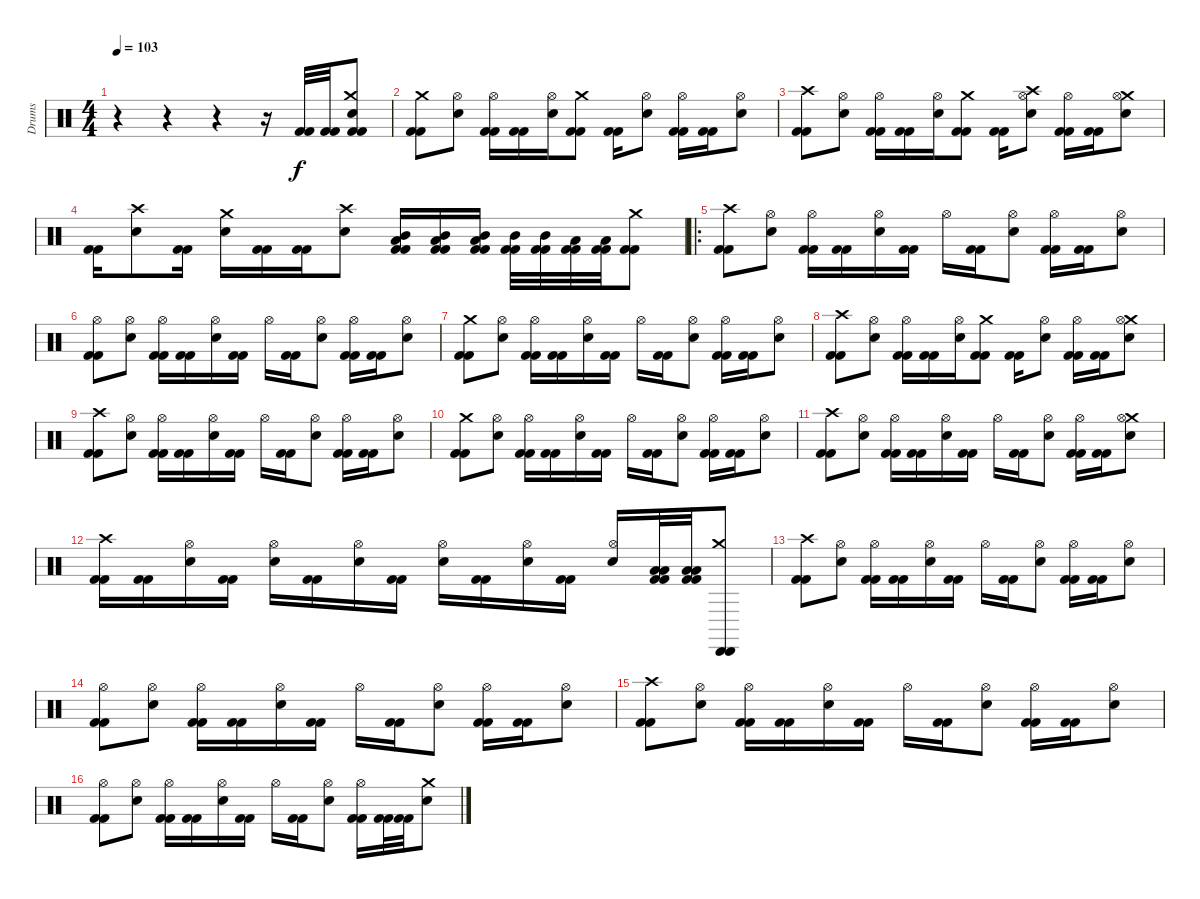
\track ("Drums" "Drums") {instrument percussion}
\staff {score}
\articulation defaults
\ts (4 4)
\tempo 103
\clef neutral
\ks c
r.4{dy f} r.4 r.4 r.16 ("Kick (hit) 2" "Kick (hit) 2").32 ("Kick (hit) 2" "Kick (hit) 2").32 ("Crash medium (hit)" "Electric Snare (hit)" "Kick (hit) 2" "Kick (hit) 2").8 |
("Crash medium (hit)" "Kick (hit) 2" "Kick (hit) 2").8 ("Hi-Hat (open)" "Electric Snare (hit)").8 ("Hi-Hat (open)" "Kick (hit) 2" "Kick (hit) 2").16 ("Kick (hit) 2" "Kick (hit) 2").16 ("Hi-Hat (open)" "Electric Snare (hit)").16 ("Crash medium (hit)" "Kick (hit) 2" "Kick (hit) 2").8 ("Kick (hit) 2" "Kick (hit) 2").16 ("Hi-Hat (open)" "Electric Snare (hit)").8 ("Hi-Hat (open)" "Kick (hit) 2" "Kick (hit) 2").16 ("Kick (hit) 2" "Kick (hit) 2").16 ("Hi-Hat (open)" "Electric Snare (hit)").8 |
("Crash high (hit)" "Kick (hit) 2" "Kick (hit) 2").8 ("Hi-Hat (open)" "Electric Snare (hit)").8 ("Hi-Hat (open)" "Kick (hit) 2" "Kick (hit) 2").16 ("Kick (hit) 2" "Kick (hit) 2").16 ("Hi-Hat (open)" "Electric Snare (hit)").16 ("Crash medium (hit)" "Kick (hit) 2" "Kick (hit) 2").8 ("Kick (hit) 2" "Kick (hit) 2").16 ("Crash high (hit)" "Hi-Hat (open)" "Electric Snare (hit)").8 ("Hi-Hat (open)" "Kick (hit) 2" "Kick (hit) 2").16 ("Kick (hit) 2" "Kick (hit) 2").16 ("Crash medium (hit)" "Hi-Hat (open)" "Electric Snare (hit)").8 |
("Kick (hit) 2" "Kick (hit) 2").16 ("Crash high (hit)" "Electric Snare (hit)").8 ("Kick (hit) 2" "Kick (hit) 2").16 ("Crash medium (hit)" "Electric Snare (hit)").16 ("Kick (hit) 2" "Kick (hit) 2").16 ("Kick (hit) 2" "Kick (hit) 2").16 ("Crash high (hit)" "Electric Snare (hit)").8 ("Mid Tom (hit)" "Low Tom (hit)" "Kick (hit) 2" "Kick (hit) 2").16 ("Mid Tom (hit)" "Low Tom (hit)" "Kick (hit) 2" "Kick (hit) 2").16 ("Mid Tom (hit)" "Low Tom (hit)" "Kick (hit) 2" "Kick (hit) 2").16 ("Mid Tom (hit)" "Kick (hit) 2" "Kick (hit) 2").32 ("Mid Tom (hit)" "Kick (hit) 2" "Kick (hit) 2").32 ("Low Tom (hit)" "Kick (hit) 2" "Kick (hit) 2").32 ("Low Tom (hit)" "Kick (hit) 2" "Kick (hit) 2").32 ("Crash medium (hit)" "Kick (hit) 2" "Kick (hit) 2").8 |
\ro
("Crash high (hit)" "Kick (hit) 2" "Kick (hit) 2").8 ("Hi-Hat (open)" "Electric Snare (hit)").8 ("Hi-Hat (open)" "Kick (hit) 2" "Kick (hit) 2").16 ("Kick (hit) 2" "Kick (hit) 2").16 ("Hi-Hat (open)" "Electric Snare (hit)").16 ("Kick (hit) 2" "Kick (hit) 2").16 "Hi-Hat (open)".16 ("Kick (hit) 2" "Kick (hit) 2").16 ("Hi-Hat (open)" "Electric Snare (hit)").8 ("Hi-Hat (open)" "Kick (hit) 2" "Kick (hit) 2").16 ("Kick (hit) 2" "Kick (hit) 2").16 ("Hi-Hat (open)" "Electric Snare (hit)").8 |
("Hi-Hat (open)" "Kick (hit) 2" "Kick (hit) 2").8 ("Hi-Hat (open)" "Electric Snare (hit)").8 ("Hi-Hat (open)" "Kick (hit) 2" "Kick (hit) 2").16 ("Kick (hit) 2" "Kick (hit) 2").16 ("Hi-Hat (open)" "Electric Snare (hit)").16 ("Kick (hit) 2" "Kick (hit) 2").16 "Hi-Hat (open)".16 ("Kick (hit) 2" "Kick (hit) 2").16 ("Hi-Hat (open)" "Electric Snare (hit)").8 ("Hi-Hat (open)" "Kick (hit) 2" "Kick (hit) 2").16 ("Kick (hit) 2" "Kick (hit) 2").16 ("Hi-Hat (open)" "Electric Snare (hit)").8 |
("Crash medium (hit)" "Kick (hit) 2" "Kick (hit) 2").8 ("Hi-Hat (open)" "Electric Snare (hit)").8 ("Hi-Hat (open)" "Kick (hit) 2" "Kick (hit) 2").16 ("Kick (hit) 2" "Kick (hit) 2").16 ("Hi-Hat (open)" "Electric Snare (hit)").16 ("Kick (hit) 2" "Kick (hit) 2").16 "Hi-Hat (open)".16 ("Kick (hit) 2" "Kick (hit) 2").16 ("Hi-Hat (open)" "Electric Snare (hit)").8 ("Hi-Hat (open)" "Kick (hit) 2" "Kick (hit) 2").16 ("Kick (hit) 2" "Kick (hit) 2").16 ("Hi-Hat (open)" "Electric Snare (hit)").8 |
("Crash high (hit)" "Kick (hit) 2" "Kick (hit) 2").8 ("Hi-Hat (open)" "Electric Snare (hit)").8 ("Hi-Hat (open)" "Kick (hit) 2" "Kick (hit) 2").16 ("Kick (hit) 2" "Kick (hit) 2").16 ("Hi-Hat (open)" "Electric Snare (hit)").16 ("Crash medium (hit)" "Kick (hit) 2" "Kick (hit) 2").8 ("Kick (hit) 2" "Kick (hit) 2").16 ("Hi-Hat (open)" "Electric Snare (hit)").8 ("Hi-Hat (open)" "Kick (hit) 2" "Kick (hit) 2").16 ("Kick (hit) 2" "Kick (hit) 2").16 ("Crash medium (hit)" "Hi-Hat (open)" "Electric Snare (hit)").8 |
("Crash high (hit)" "Kick (hit) 2" "Kick (hit) 2").8 ("Hi-Hat (open)" "Electric Snare (hit)").8 ("Hi-Hat (open)" "Kick (hit) 2" "Kick (hit) 2").16 ("Kick (hit) 2" "Kick (hit) 2").16 ("Hi-Hat (open)" "Electric Snare (hit)").16 ("Kick (hit) 2" "Kick (hit) 2").16 "Hi-Hat (open)".16 ("Kick (hit) 2" "Kick (hit) 2").16 ("Hi-Hat (open)" "Electric Snare (hit)").8 ("Hi-Hat (open)" "Kick (hit) 2" "Kick (hit) 2").16 ("Kick (hit) 2" "Kick (hit) 2").16 ("Hi-Hat (open)" "Electric Snare (hit)").8 |
("Crash medium (hit)" "Kick (hit) 2" "Kick (hit) 2").8 ("Hi-Hat (open)" "Electric Snare (hit)").8 ("Hi-Hat (open)" "Kick (hit) 2" "Kick (hit) 2").16 ("Kick (hit) 2" "Kick (hit) 2").16 ("Hi-Hat (open)" "Electric Snare (hit)").16 ("Kick (hit) 2" "Kick (hit) 2").16 "Hi-Hat (open)".16 ("Kick (hit) 2" "Kick (hit) 2").16 ("Hi-Hat (open)" "Electric Snare (hit)").8 ("Hi-Hat (open)" "Kick (hit) 2" "Kick (hit) 2").16 ("Kick (hit) 2" "Kick (hit) 2").16 ("Hi-Hat (open)" "Electric Snare (hit)").8 |
("Crash high (hit)" "Kick (hit) 2" "Kick (hit) 2").8 ("Hi-Hat (open)" "Electric Snare (hit)").8 ("Hi-Hat (open)" "Kick (hit) 2" "Kick (hit) 2").16 ("Kick (hit) 2" "Kick (hit) 2").16 ("Hi-Hat (open)" "Electric Snare (hit)").16 ("Kick (hit) 2" "Kick (hit) 2").16 "Hi-Hat (open)".16 ("Kick (hit) 2" "Kick (hit) 2").16 ("Hi-Hat (open)" "Electric Snare (hit)").8 ("Hi-Hat (open)" "Kick (hit) 2" "Kick (hit) 2").16 ("Kick (hit) 2" "Kick (hit) 2").16 ("Crash medium (hit)" "Hi-Hat (open)" "Electric Snare (hit)").8 |
("Crash high (hit)" "Kick (hit) 2" "Kick (hit) 2").16 ("Kick (hit) 2" "Kick (hit) 2").16 ("Hi-Hat (open)" "Electric Snare (hit)").16 ("Kick (hit) 2" "Kick (hit) 2").16 ("Hi-Hat (open)" "Electric Snare (hit)").16 ("Kick (hit) 2" "Kick (hit) 2").16 ("Hi-Hat (open)" "Electric Snare (hit)").16 ("Kick (hit) 2" "Kick (hit) 2").16 ("Hi-Hat (open)" "Electric Snare (hit)").16 ("Kick (hit) 2" "Kick (hit) 2").16 ("Hi-Hat (open)" "Electric Snare (hit)").16 ("Kick (hit) 2" "Kick (hit) 2").16 ("Hi-Hat (open)" "Electric Snare (hit)").16 ("Low Tom (hit)" "Low Tom (hit)" "Kick (hit) 2" "Kick (hit) 2").32 ("Low Tom (hit)" "Low Tom (hit)" "Kick (hit) 2" "Kick (hit) 2").32 ("Crash medium (hit)" "Cabasa (hit)" "Cabasa (hit)").8 |
("Crash high (hit)" "Kick (hit) 2" "Kick (hit) 2").8 ("Hi-Hat (open)" "Electric Snare (hit)").8 ("Hi-Hat (open)" "Kick (hit) 2" "Kick (hit) 2").16 ("Kick (hit) 2" "Kick (hit) 2").16 ("Hi-Hat (open)" "Electric Snare (hit)").16 ("Kick (hit) 2" "Kick (hit) 2").16 "Hi-Hat (open)".16 ("Kick (hit) 2" "Kick (hit) 2").16 ("Hi-Hat (open)" "Electric Snare (hit)").8 ("Hi-Hat (open)" "Kick (hit) 2" "Kick (hit) 2").16 ("Kick (hit) 2" "Kick (hit) 2").16 ("Hi-Hat (open)" "Electric Snare (hit)").8 |
("Hi-Hat (open)" "Kick (hit) 2" "Kick (hit) 2").8 ("Hi-Hat (open)" "Electric Snare (hit)").8 ("Hi-Hat (open)" "Kick (hit) 2" "Kick (hit) 2").16 ("Kick (hit) 2" "Kick (hit) 2").16 ("Hi-Hat (open)" "Electric Snare (hit)").16 ("Kick (hit) 2" "Kick (hit) 2").16 "Hi-Hat (open)".16 ("Kick (hit) 2" "Kick (hit) 2").16 ("Hi-Hat (open)" "Electric Snare (hit)").8 ("Hi-Hat (open)" "Kick (hit) 2" "Kick (hit) 2").16 ("Kick (hit) 2" "Kick (hit) 2").16 ("Hi-Hat (open)" "Electric Snare (hit)").8 |
("Crash high (hit)" "Kick (hit) 2" "Kick (hit) 2").8 ("Hi-Hat (open)" "Electric Snare (hit)").8 ("Hi-Hat (open)" "Kick (hit) 2" "Kick (hit) 2").16 ("Kick (hit) 2" "Kick (hit) 2").16 ("Hi-Hat (open)" "Electric Snare (hit)").16 ("Kick (hit) 2" "Kick (hit) 2").16 "Hi-Hat (open)".16 ("Kick (hit) 2" "Kick (hit) 2").16 ("Hi-Hat (open)" "Electric Snare (hit)").8 ("Hi-Hat (open)" "Kick (hit) 2" "Kick (hit) 2").16 ("Kick (hit) 2" "Kick (hit) 2").16 ("Hi-Hat (open)" "Electric Snare (hit)").8 |
("Hi-Hat (open)" "Kick (hit) 2" "Kick (hit) 2").8 ("Hi-Hat (open)" "Electric Snare (hit)").8 ("Hi-Hat (open)" "Kick (hit) 2" "Kick (hit) 2").16 ("Kick (hit) 2" "Kick (hit) 2").16 ("Hi-Hat (open)" "Electric Snare (hit)").16 ("Kick (hit) 2" "Kick (hit) 2").16 "Hi-Hat (open)".16 ("Kick (hit) 2" "Kick (hit) 2").16 ("Hi-Hat (open)" "Electric Snare (hit)").8 ("Hi-Hat (open)" "Kick (hit) 2" "Kick (hit) 2").16 ("Kick (hit) 2" "Kick (hit) 2").32 ("Kick (hit) 2" "Kick (hit) 2").32 ("Crash medium (hit)" "Electric Snare (hit)").8
